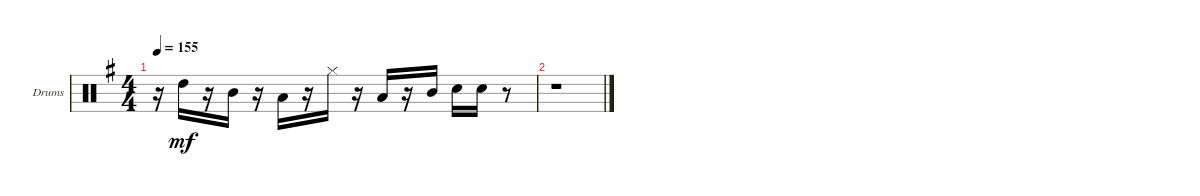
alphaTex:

\bracketExtendMode groupsimilarinstruments
\firstSystemTrackNameOrientation horizontal
\otherSystemsTrackNameOrientation horizontal
\track ("Drumkit" "Drums") {instrument percussion}
\staff {score}
\articulation defaults
\ts (4 4)
\tempo 155
\clef neutral
\scale
0.333333
\ks g
r.16{dy mf} "High Tom (hit)".16 r.16 "Mid Tom (hit)".16 r.16 "Low Tom (hit)".16 r.16 "Hi-Hat (closed)".16 r.16 "Low Tom (hit)".16 r.16 "Mid Tom (hit)".16 "Snare (hit) 2".16 "Snare (hit) 2".16 r.8 |
\scale
0.333333 r.1 |
\scale
0.333333 |
\scale
0.333333 |
\scale
0.333333 |
\scale
0.333333 |
\scale
0.333333 |
\scale
0.333333 |
\scale
0.333333 |
\scale
0.333333 |
\scale
0.333333 |
\scale
0.333333 |
\scale
0.333333 |
\scale
0.333333 |
\scale
0.333333 |
\scale
0.333333
